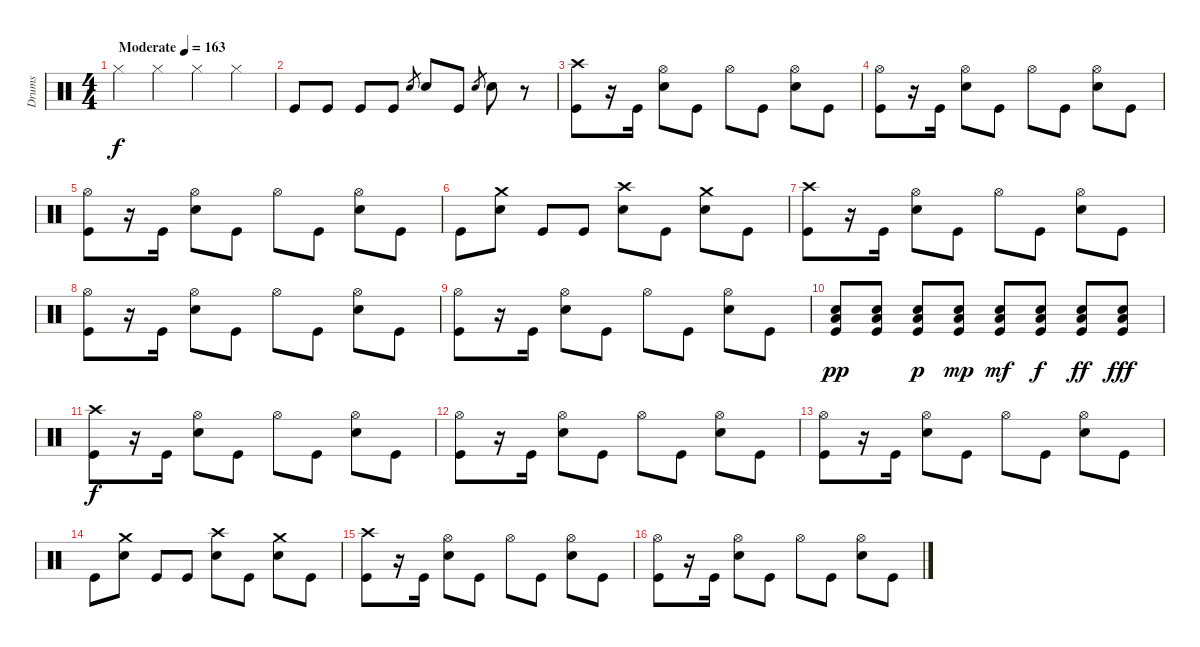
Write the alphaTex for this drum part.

\track ("Drums" "Drums") {instrument percussion}
\staff {score}
\articulation defaults
\ts (4 4)
\tempo (163 "Moderate")
\clef neutral
\ks c "Hi-Hat (closed)".4{dy f} "Hi-Hat (closed)".4 "Hi-Hat (closed)".4 "Hi-Hat (closed)".4
|
"Kick (hit)".8 "Kick (hit)".8 "Kick (hit)".8 "Kick (hit)".8 "Snare (hit) 2".8{gr} "Snare (hit) 2".8 "Kick (hit)".8 "Snare (hit) 2".8{gr} "Snare (hit) 2".8 r.8 |
("Crash high (hit)" "Kick (hit)").8 r.16 "Kick (hit)".16 ("Hi-Hat (open)" "Snare (hit) 2").8 "Kick (hit)".8 "Hi-Hat (open)".8 "Kick (hit)".8 ("Hi-Hat (open)" "Snare (hit) 2").8 "Kick (hit)".8 |
("Hi-Hat (open)" "Kick (hit)").8 r.16 "Kick (hit)".16 ("Hi-Hat (open)" "Snare (hit) 2").8 "Kick (hit)".8 "Hi-Hat (open)".8 "Kick (hit)".8 ("Hi-Hat (open)" "Snare (hit) 2").8 "Kick (hit)".8 |
("Hi-Hat (open)" "Kick (hit)").8 r.16 "Kick (hit)".16 ("Hi-Hat (open)" "Snare (hit) 2").8 "Kick (hit)".8 "Hi-Hat (open)".8 "Kick (hit)".8 ("Hi-Hat (open)" "Snare (hit) 2").8 "Kick (hit)".8 |
"Kick (hit)".8 ("Crash medium (hit)" "Snare (hit) 2").8 "Kick (hit)".8 "Kick (hit)".8 ("Crash high (hit)" "Snare (hit) 2").8 "Kick (hit)".8 ("Crash medium (hit)" "Snare (hit) 2").8 "Kick (hit)".8 |
("Crash high (hit)" "Kick (hit)").8 r.16 "Kick (hit)".16 ("Hi-Hat (open)" "Snare (hit) 2").8 "Kick (hit)".8 "Hi-Hat (open)".8 "Kick (hit)".8 ("Hi-Hat (open)" "Snare (hit) 2").8 "Kick (hit)".8 |
("Hi-Hat (open)" "Kick (hit)").8 r.16 "Kick (hit)".16 ("Hi-Hat (open)" "Snare (hit) 2").8 "Kick (hit)".8 "Hi-Hat (open)".8 "Kick (hit)".8 ("Hi-Hat (open)" "Snare (hit) 2").8 "Kick (hit)".8 |
("Hi-Hat (open)" "Kick (hit)").8 r.16 "Kick (hit)".16 ("Hi-Hat (open)" "Snare (hit) 2").8 "Kick (hit)".8 "Hi-Hat (open)".8 "Kick (hit)".8 ("Hi-Hat (open)" "Snare (hit) 2").8 "Kick (hit)".8 |
("Low Floor Tom (hit)" "Snare (hit) 2" "Kick (hit)").8{dy pp} ("Low Floor Tom (hit)" "Snare (hit) 2" "Kick (hit)").8 ("Low Floor Tom (hit)" "Snare (hit) 2" "Kick (hit)").8{dy p} ("Low Floor Tom (hit)" "Snare (hit) 2" "Kick (hit)").8{dy mp} ("Low Floor Tom (hit)" "Snare (hit) 2" "Kick (hit)").8{dy mf} ("Low Floor Tom (hit)" "Snare (hit) 2" "Kick (hit)").8{dy f} ("Low Floor Tom (hit)" "Snare (hit) 2" "Kick (hit)").8{dy ff} ("Low Floor Tom (hit)" "Snare (hit) 2" "Kick (hit)").8{dy fff} |
("Crash high (hit)" "Kick (hit)").8{dy f} r.16 "Kick (hit)".16 ("Hi-Hat (open)" "Snare (hit) 2").8 "Kick (hit)".8 "Hi-Hat (open)".8 "Kick (hit)".8 ("Hi-Hat (open)" "Snare (hit) 2").8 "Kick (hit)".8 |
("Hi-Hat (open)" "Kick (hit)").8 r.16 "Kick (hit)".16 ("Hi-Hat (open)" "Snare (hit) 2").8 "Kick (hit)".8 "Hi-Hat (open)".8 "Kick (hit)".8 ("Hi-Hat (open)" "Snare (hit) 2").8 "Kick (hit)".8 |
("Hi-Hat (open)" "Kick (hit)").8 r.16 "Kick (hit)".16 ("Hi-Hat (open)" "Snare (hit) 2").8 "Kick (hit)".8 "Hi-Hat (open)".8 "Kick (hit)".8 ("Hi-Hat (open)" "Snare (hit) 2").8 "Kick (hit)".8 |
"Kick (hit)".8 ("Crash medium (hit)" "Snare (hit) 2").8 "Kick (hit)".8 "Kick (hit)".8 ("Crash high (hit)" "Snare (hit) 2").8 "Kick (hit)".8 ("Crash medium (hit)" "Snare (hit) 2").8 "Kick (hit)".8 |
("Crash high (hit)" "Kick (hit)").8 r.16 "Kick (hit)".16 ("Hi-Hat (open)" "Snare (hit) 2").8 "Kick (hit)".8 "Hi-Hat (open)".8 "Kick (hit)".8 ("Hi-Hat (open)" "Snare (hit) 2").8 "Kick (hit)".8 |
("Hi-Hat (open)" "Kick (hit)").8 r.16 "Kick (hit)".16 ("Hi-Hat (open)" "Snare (hit) 2").8 "Kick (hit)".8 "Hi-Hat (open)".8 "Kick (hit)".8 ("Hi-Hat (open)" "Snare (hit) 2").8 "Kick (hit)".8
